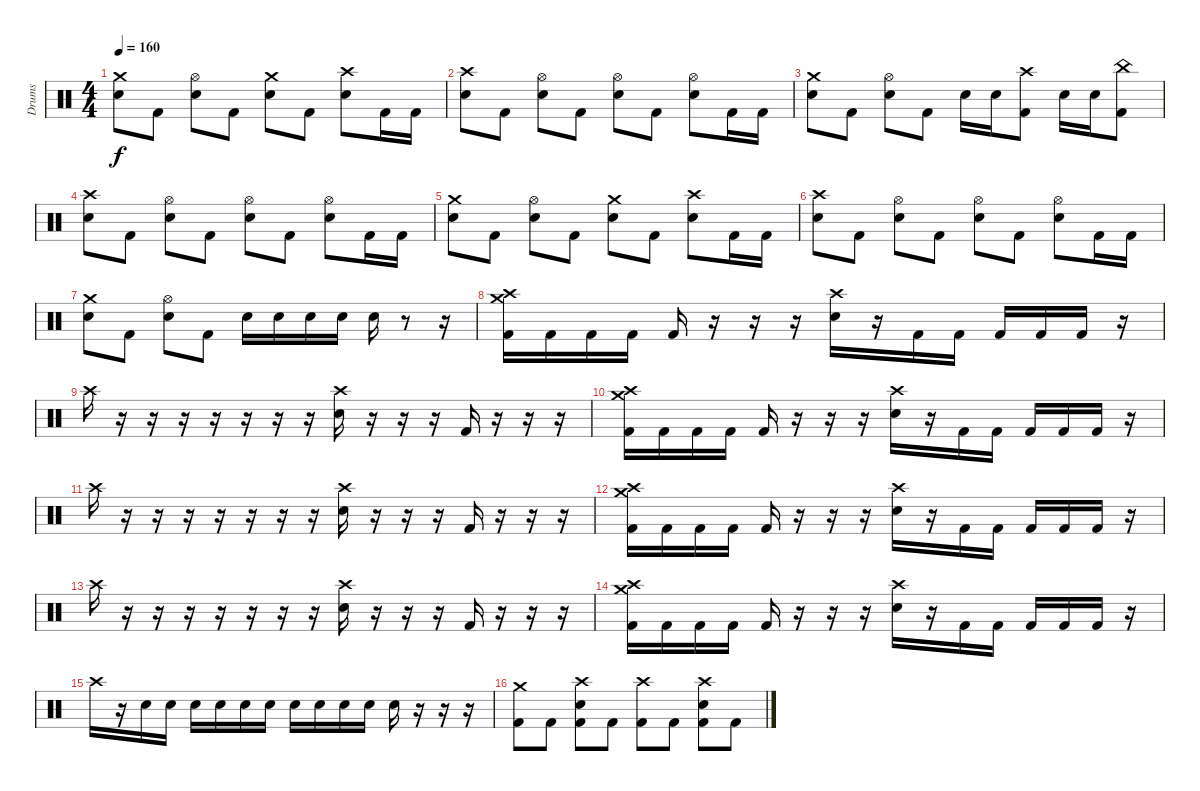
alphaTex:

\track ("Drums" "Drums") {instrument percussion}
\staff {score}
\articulation defaults
\ts (4 4)
\tempo 160
\clef neutral
\ks c
("Crash medium (hit)" "Electric Snare (hit)").8{dy f} "Kick (hit) 2".8 ("Hi-Hat (open)" "Electric Snare (hit)").8 "Kick (hit) 2".8 ("Crash medium (hit)" "Electric Snare (hit)").8 "Kick (hit) 2".8 ("Crash high (hit)" "Electric Snare (hit)").8 "Kick (hit) 2".16 "Kick (hit) 2".16 |
("Crash high (hit)" "Electric Snare (hit)").8 "Kick (hit) 2".8 ("Hi-Hat (open)" "Electric Snare (hit)").8 "Kick (hit) 2".8 ("Hi-Hat (open)" "Electric Snare (hit)").8 "Kick (hit) 2".8 ("Hi-Hat (open)" "Electric Snare (hit)").8 "Kick (hit) 2".16 "Kick (hit) 2".16 |
("Crash medium (hit)" "Electric Snare (hit)").8 "Kick (hit) 2".8 ("Hi-Hat (open)" "Electric Snare (hit)").8 "Kick (hit) 2".8 "Electric Snare (hit)".16 "Electric Snare (hit)".16 ("Crash high (hit)" "Kick (hit) 2").8 "Electric Snare (hit)".16 "Electric Snare (hit)".16 ("China (hit)" "Kick (hit) 2").8 |
("Crash high (hit)" "Electric Snare (hit)").8 "Kick (hit) 2".8 ("Hi-Hat (open)" "Electric Snare (hit)").8 "Kick (hit) 2".8 ("Hi-Hat (open)" "Electric Snare (hit)").8 "Kick (hit) 2".8 ("Hi-Hat (open)" "Electric Snare (hit)").8 "Kick (hit) 2".16 "Kick (hit) 2".16 |
("Crash medium (hit)" "Electric Snare (hit)").8 "Kick (hit) 2".8 ("Hi-Hat (open)" "Electric Snare (hit)").8 "Kick (hit) 2".8 ("Crash medium (hit)" "Electric Snare (hit)").8 "Kick (hit) 2".8 ("Crash high (hit)" "Electric Snare (hit)").8 "Kick (hit) 2".16 "Kick (hit) 2".16 |
("Crash high (hit)" "Electric Snare (hit)").8 "Kick (hit) 2".8 ("Hi-Hat (open)" "Electric Snare (hit)").8 "Kick (hit) 2".8 ("Hi-Hat (open)" "Electric Snare (hit)").8 "Kick (hit) 2".8 ("Hi-Hat (open)" "Electric Snare (hit)").8 "Kick (hit) 2".16 "Kick (hit) 2".16 |
("Crash medium (hit)" "Electric Snare (hit)").8 "Kick (hit) 2".8 ("Hi-Hat (open)" "Electric Snare (hit)").8 "Kick (hit) 2".8 "Electric Snare (hit)".16 "Electric Snare (hit)".16 "Electric Snare (hit)".16 "Electric Snare (hit)".16 "Electric Snare (hit)".16 r.8 r.16 |
("Crash high (hit)" "Crash medium (hit)" "Kick (hit) 2").16 "Kick (hit) 2".16 "Kick (hit) 2".16 "Kick (hit) 2".16 "Kick (hit) 2".16 r.16 r.16 r.16 ("Crash high (hit)" "Electric Snare (hit)").16 r.16 "Kick (hit) 2".16 "Kick (hit) 2".16 "Kick (hit) 2".16 "Kick (hit) 2".16 "Kick (hit) 2".16 r.16 |
"Crash high (hit)".16 r.16 r.16 r.16 r.16 r.16 r.16 r.16 ("Crash high (hit)" "Electric Snare (hit)").16 r.16 r.16 r.16 "Kick (hit) 2".16 r.16 r.16 r.16 |
("Crash high (hit)" "Crash medium (hit)" "Kick (hit) 2").16 "Kick (hit) 2".16 "Kick (hit) 2".16 "Kick (hit) 2".16 "Kick (hit) 2".16 r.16 r.16 r.16 ("Crash high (hit)" "Electric Snare (hit)").16 r.16 "Kick (hit) 2".16 "Kick (hit) 2".16 "Kick (hit) 2".16 "Kick (hit) 2".16 "Kick (hit) 2".16 r.16 |
"Crash high (hit)".16 r.16 r.16 r.16 r.16 r.16 r.16 r.16 ("Crash high (hit)" "Electric Snare (hit)").16 r.16 r.16 r.16 "Kick (hit) 2".16 r.16 r.16 r.16 |
("Crash high (hit)" "Crash medium (hit)" "Kick (hit) 2").16 "Kick (hit) 2".16 "Kick (hit) 2".16 "Kick (hit) 2".16 "Kick (hit) 2".16 r.16 r.16 r.16 ("Crash high (hit)" "Electric Snare (hit)").16 r.16 "Kick (hit) 2".16 "Kick (hit) 2".16 "Kick (hit) 2".16 "Kick (hit) 2".16 "Kick (hit) 2".16 r.16 |
"Crash high (hit)".16 r.16 r.16 r.16 r.16 r.16 r.16 r.16 ("Crash high (hit)" "Electric Snare (hit)").16 r.16 r.16 r.16 "Kick (hit) 2".16 r.16 r.16 r.16 |
("Crash high (hit)" "Crash medium (hit)" "Kick (hit) 2").16 "Kick (hit) 2".16 "Kick (hit) 2".16 "Kick (hit) 2".16 "Kick (hit) 2".16 r.16 r.16 r.16 ("Crash high (hit)" "Electric Snare (hit)").16 r.16 "Kick (hit) 2".16 "Kick (hit) 2".16 "Kick (hit) 2".16 "Kick (hit) 2".16 "Kick (hit) 2".16 r.16 |
"Crash high (hit)".16 r.16 "Electric Snare (hit)".16 "Electric Snare (hit)".16 "Electric Snare (hit)".16 "Electric Snare (hit)".16 "Electric Snare (hit)".16 "Electric Snare (hit)".16 "Electric Snare (hit)".16 "Electric Snare (hit)".16 "Electric Snare (hit)".16 "Electric Snare (hit)".16 "Electric Snare (hit)".16 r.16 r.16 r.16 |
("Crash medium (hit)" "Kick (hit) 2").8 "Kick (hit) 2".8 ("Crash high (hit)" "Electric Snare (hit)" "Kick (hit) 2").8 "Kick (hit) 2".8 ("Crash high (hit)" "Kick (hit) 2").8 "Kick (hit) 2".8 ("Crash high (hit)" "Electric Snare (hit)" "Kick (hit) 2").8 "Kick (hit) 2".8
